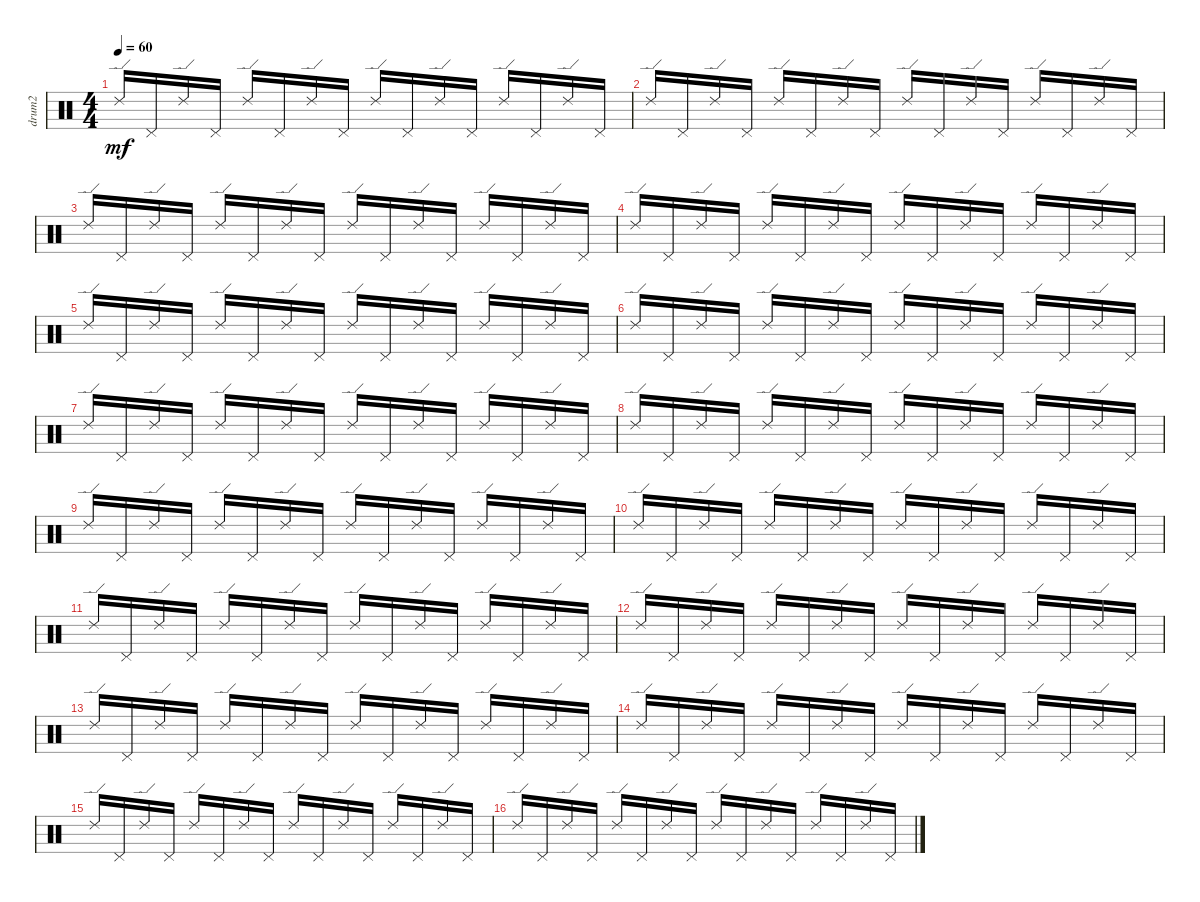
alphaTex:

\track ("drum2" "drum2") {instrument percussion}
\staff {score}
\articulation defaults
\ts (4 4)
\tempo 60
\clef neutral
\ks c "Ride (edge) 2".16{dy mf} "Pedal Hi-Hat (hit)".16 "Ride (edge) 2".16 "Pedal Hi-Hat (hit)".16 "Ride (edge) 2".16 "Pedal Hi-Hat (hit)".16 "Ride (edge) 2".16 "Pedal Hi-Hat (hit)".16 "Ride (edge) 2".16 "Pedal Hi-Hat (hit)".16 "Ride (edge) 2".16 "Pedal Hi-Hat (hit)".16 "Ride (edge) 2".16 "Pedal Hi-Hat (hit)".16 "Ride (edge) 2".16 "Pedal Hi-Hat (hit)".16
|
"Ride (edge) 2".16 "Pedal Hi-Hat (hit)".16 "Ride (edge) 2".16 "Pedal Hi-Hat (hit)".16 "Ride (edge) 2".16 "Pedal Hi-Hat (hit)".16 "Ride (edge) 2".16 "Pedal Hi-Hat (hit)".16 "Ride (edge) 2".16 "Pedal Hi-Hat (hit)".16 "Ride (edge) 2".16 "Pedal Hi-Hat (hit)".16 "Ride (edge) 2".16 "Pedal Hi-Hat (hit)".16 "Ride (edge) 2".16 "Pedal Hi-Hat (hit)".16 |
"Ride (edge) 2".16 "Pedal Hi-Hat (hit)".16 "Ride (edge) 2".16 "Pedal Hi-Hat (hit)".16 "Ride (edge) 2".16 "Pedal Hi-Hat (hit)".16 "Ride (edge) 2".16 "Pedal Hi-Hat (hit)".16 "Ride (edge) 2".16 "Pedal Hi-Hat (hit)".16 "Ride (edge) 2".16 "Pedal Hi-Hat (hit)".16 "Ride (edge) 2".16 "Pedal Hi-Hat (hit)".16 "Ride (edge) 2".16 "Pedal Hi-Hat (hit)".16 |
"Ride (edge) 2".16 "Pedal Hi-Hat (hit)".16 "Ride (edge) 2".16 "Pedal Hi-Hat (hit)".16 "Ride (edge) 2".16 "Pedal Hi-Hat (hit)".16 "Ride (edge) 2".16 "Pedal Hi-Hat (hit)".16 "Ride (edge) 2".16 "Pedal Hi-Hat (hit)".16 "Ride (edge) 2".16 "Pedal Hi-Hat (hit)".16 "Ride (edge) 2".16 "Pedal Hi-Hat (hit)".16 "Ride (edge) 2".16 "Pedal Hi-Hat (hit)".16 |
"Ride (edge) 2".16 "Pedal Hi-Hat (hit)".16 "Ride (edge) 2".16 "Pedal Hi-Hat (hit)".16 "Ride (edge) 2".16 "Pedal Hi-Hat (hit)".16 "Ride (edge) 2".16 "Pedal Hi-Hat (hit)".16 "Ride (edge) 2".16 "Pedal Hi-Hat (hit)".16 "Ride (edge) 2".16 "Pedal Hi-Hat (hit)".16 "Ride (edge) 2".16 "Pedal Hi-Hat (hit)".16 "Ride (edge) 2".16 "Pedal Hi-Hat (hit)".16 |
"Ride (edge) 2".16 "Pedal Hi-Hat (hit)".16 "Ride (edge) 2".16 "Pedal Hi-Hat (hit)".16 "Ride (edge) 2".16 "Pedal Hi-Hat (hit)".16 "Ride (edge) 2".16 "Pedal Hi-Hat (hit)".16 "Ride (edge) 2".16 "Pedal Hi-Hat (hit)".16 "Ride (edge) 2".16 "Pedal Hi-Hat (hit)".16 "Ride (edge) 2".16 "Pedal Hi-Hat (hit)".16 "Ride (edge) 2".16 "Pedal Hi-Hat (hit)".16 |
"Ride (edge) 2".16 "Pedal Hi-Hat (hit)".16 "Ride (edge) 2".16 "Pedal Hi-Hat (hit)".16 "Ride (edge) 2".16 "Pedal Hi-Hat (hit)".16 "Ride (edge) 2".16 "Pedal Hi-Hat (hit)".16 "Ride (edge) 2".16 "Pedal Hi-Hat (hit)".16 "Ride (edge) 2".16 "Pedal Hi-Hat (hit)".16 "Ride (edge) 2".16 "Pedal Hi-Hat (hit)".16 "Ride (edge) 2".16 "Pedal Hi-Hat (hit)".16 |
"Ride (edge) 2".16 "Pedal Hi-Hat (hit)".16 "Ride (edge) 2".16 "Pedal Hi-Hat (hit)".16 "Ride (edge) 2".16 "Pedal Hi-Hat (hit)".16 "Ride (edge) 2".16 "Pedal Hi-Hat (hit)".16 "Ride (edge) 2".16 "Pedal Hi-Hat (hit)".16 "Ride (edge) 2".16 "Pedal Hi-Hat (hit)".16 "Ride (edge) 2".16 "Pedal Hi-Hat (hit)".16 "Ride (edge) 2".16 "Pedal Hi-Hat (hit)".16 |
"Ride (edge) 2".16 "Pedal Hi-Hat (hit)".16 "Ride (edge) 2".16 "Pedal Hi-Hat (hit)".16 "Ride (edge) 2".16 "Pedal Hi-Hat (hit)".16 "Ride (edge) 2".16 "Pedal Hi-Hat (hit)".16 "Ride (edge) 2".16 "Pedal Hi-Hat (hit)".16 "Ride (edge) 2".16 "Pedal Hi-Hat (hit)".16 "Ride (edge) 2".16 "Pedal Hi-Hat (hit)".16 "Ride (edge) 2".16 "Pedal Hi-Hat (hit)".16 |
"Ride (edge) 2".16 "Pedal Hi-Hat (hit)".16 "Ride (edge) 2".16 "Pedal Hi-Hat (hit)".16 "Ride (edge) 2".16 "Pedal Hi-Hat (hit)".16 "Ride (edge) 2".16 "Pedal Hi-Hat (hit)".16 "Ride (edge) 2".16 "Pedal Hi-Hat (hit)".16 "Ride (edge) 2".16 "Pedal Hi-Hat (hit)".16 "Ride (edge) 2".16 "Pedal Hi-Hat (hit)".16 "Ride (edge) 2".16 "Pedal Hi-Hat (hit)".16 |
"Ride (edge) 2".16 "Pedal Hi-Hat (hit)".16 "Ride (edge) 2".16 "Pedal Hi-Hat (hit)".16 "Ride (edge) 2".16 "Pedal Hi-Hat (hit)".16 "Ride (edge) 2".16 "Pedal Hi-Hat (hit)".16 "Ride (edge) 2".16 "Pedal Hi-Hat (hit)".16 "Ride (edge) 2".16 "Pedal Hi-Hat (hit)".16 "Ride (edge) 2".16 "Pedal Hi-Hat (hit)".16 "Ride (edge) 2".16 "Pedal Hi-Hat (hit)".16 |
"Ride (edge) 2".16 "Pedal Hi-Hat (hit)".16 "Ride (edge) 2".16 "Pedal Hi-Hat (hit)".16 "Ride (edge) 2".16 "Pedal Hi-Hat (hit)".16 "Ride (edge) 2".16 "Pedal Hi-Hat (hit)".16 "Ride (edge) 2".16 "Pedal Hi-Hat (hit)".16 "Ride (edge) 2".16 "Pedal Hi-Hat (hit)".16 "Ride (edge) 2".16 "Pedal Hi-Hat (hit)".16 "Ride (edge) 2".16 "Pedal Hi-Hat (hit)".16 |
"Ride (edge) 2".16 "Pedal Hi-Hat (hit)".16 "Ride (edge) 2".16 "Pedal Hi-Hat (hit)".16 "Ride (edge) 2".16 "Pedal Hi-Hat (hit)".16 "Ride (edge) 2".16 "Pedal Hi-Hat (hit)".16 "Ride (edge) 2".16 "Pedal Hi-Hat (hit)".16 "Ride (edge) 2".16 "Pedal Hi-Hat (hit)".16 "Ride (edge) 2".16 "Pedal Hi-Hat (hit)".16 "Ride (edge) 2".16 "Pedal Hi-Hat (hit)".16 |
"Ride (edge) 2".16 "Pedal Hi-Hat (hit)".16 "Ride (edge) 2".16 "Pedal Hi-Hat (hit)".16 "Ride (edge) 2".16 "Pedal Hi-Hat (hit)".16 "Ride (edge) 2".16 "Pedal Hi-Hat (hit)".16 "Ride (edge) 2".16 "Pedal Hi-Hat (hit)".16 "Ride (edge) 2".16 "Pedal Hi-Hat (hit)".16 "Ride (edge) 2".16 "Pedal Hi-Hat (hit)".16 "Ride (edge) 2".16 "Pedal Hi-Hat (hit)".16 |
"Ride (edge) 2".16 "Pedal Hi-Hat (hit)".16 "Ride (edge) 2".16 "Pedal Hi-Hat (hit)".16 "Ride (edge) 2".16 "Pedal Hi-Hat (hit)".16 "Ride (edge) 2".16 "Pedal Hi-Hat (hit)".16 "Ride (edge) 2".16 "Pedal Hi-Hat (hit)".16 "Ride (edge) 2".16 "Pedal Hi-Hat (hit)".16 "Ride (edge) 2".16 "Pedal Hi-Hat (hit)".16 "Ride (edge) 2".16 "Pedal Hi-Hat (hit)".16 |
"Ride (edge) 2".16 "Pedal Hi-Hat (hit)".16 "Ride (edge) 2".16 "Pedal Hi-Hat (hit)".16 "Ride (edge) 2".16 "Pedal Hi-Hat (hit)".16 "Ride (edge) 2".16 "Pedal Hi-Hat (hit)".16 "Ride (edge) 2".16 "Pedal Hi-Hat (hit)".16 "Ride (edge) 2".16 "Pedal Hi-Hat (hit)".16 "Ride (edge) 2".16 "Pedal Hi-Hat (hit)".16 "Ride (edge) 2".16 "Pedal Hi-Hat (hit)".16
